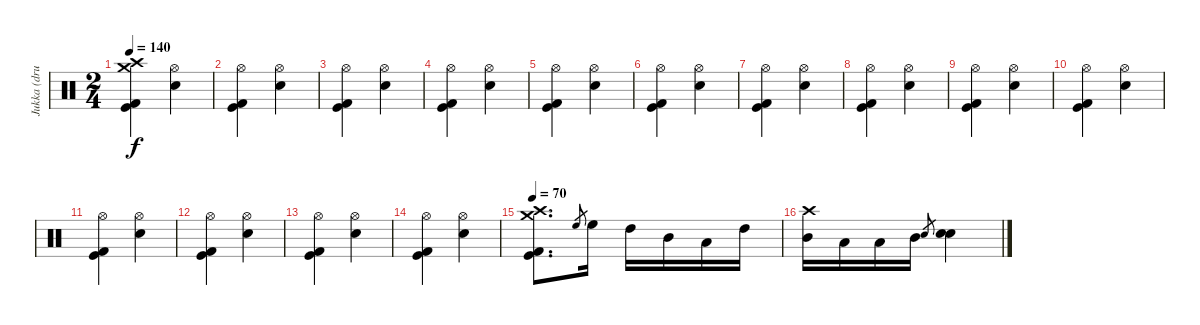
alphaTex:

\track ("Jukka (drums)" "Jukka (dru") {instrument percussion}
\staff {score}
\articulation defaults
\ts (2 4)
\tempo 140
\clef neutral
\ks c
("Kick (hit)" "Kick (hit) 2" "Crash high (hit)" "Crash medium (hit)").4{dy f} ("Electric Snare (hit)" "Hi-Hat (open)").4 |
("Kick (hit)" "Kick (hit) 2" "Hi-Hat (open)").4 ("Electric Snare (hit)" "Hi-Hat (open)").4 |
("Kick (hit)" "Kick (hit) 2" "Hi-Hat (open)").4 ("Electric Snare (hit)" "Hi-Hat (open)").4 |
("Kick (hit)" "Kick (hit) 2" "Hi-Hat (open)").4 ("Electric Snare (hit)" "Hi-Hat (open)").4 |
("Kick (hit)" "Kick (hit) 2" "Hi-Hat (open)").4 ("Electric Snare (hit)" "Hi-Hat (open)").4 |
("Kick (hit)" "Kick (hit) 2" "Hi-Hat (open)").4 ("Electric Snare (hit)" "Hi-Hat (open)").4 |
("Kick (hit)" "Kick (hit) 2" "Hi-Hat (open)").4 ("Electric Snare (hit)" "Hi-Hat (open)").4 |
("Kick (hit)" "Kick (hit) 2" "Hi-Hat (open)").4 ("Electric Snare (hit)" "Hi-Hat (open)").4 |
("Kick (hit)" "Kick (hit) 2" "Hi-Hat (open)").4 ("Electric Snare (hit)" "Hi-Hat (open)").4 |
("Kick (hit)" "Kick (hit) 2" "Hi-Hat (open)").4 ("Electric Snare (hit)" "Hi-Hat (open)").4 |
("Kick (hit)" "Kick (hit) 2" "Hi-Hat (open)").4 ("Electric Snare (hit)" "Hi-Hat (open)").4 |
("Kick (hit)" "Kick (hit) 2" "Hi-Hat (open)").4 ("Electric Snare (hit)" "Hi-Hat (open)").4 |
("Kick (hit)" "Kick (hit) 2" "Hi-Hat (open)").4 ("Electric Snare (hit)" "Hi-Hat (open)").4 |
("Kick (hit)" "Kick (hit) 2" "Hi-Hat (open)").4 ("Electric Snare (hit)" "Hi-Hat (open)").4 |
\tempo 70
("Kick (hit)" "Kick (hit) 2" "Crash high (hit)" "Crash medium (hit)").8{d} "High Floor Tom (hit)".8{gr} "High Floor Tom (hit)".16 "High Tom (hit)".16 "Mid Tom (hit)".16 "Low Tom (hit)".16 "High Tom (hit)".16 |
("Mid Tom (hit)" "Crash high (hit)").16 "Low Tom (hit)".16 "Low Tom (hit)".16 "Mid Tom (hit)".16 "Electric Snare (hit)".8{gr} ("Electric Snare (hit)" "Electric Snare (hit)").4
